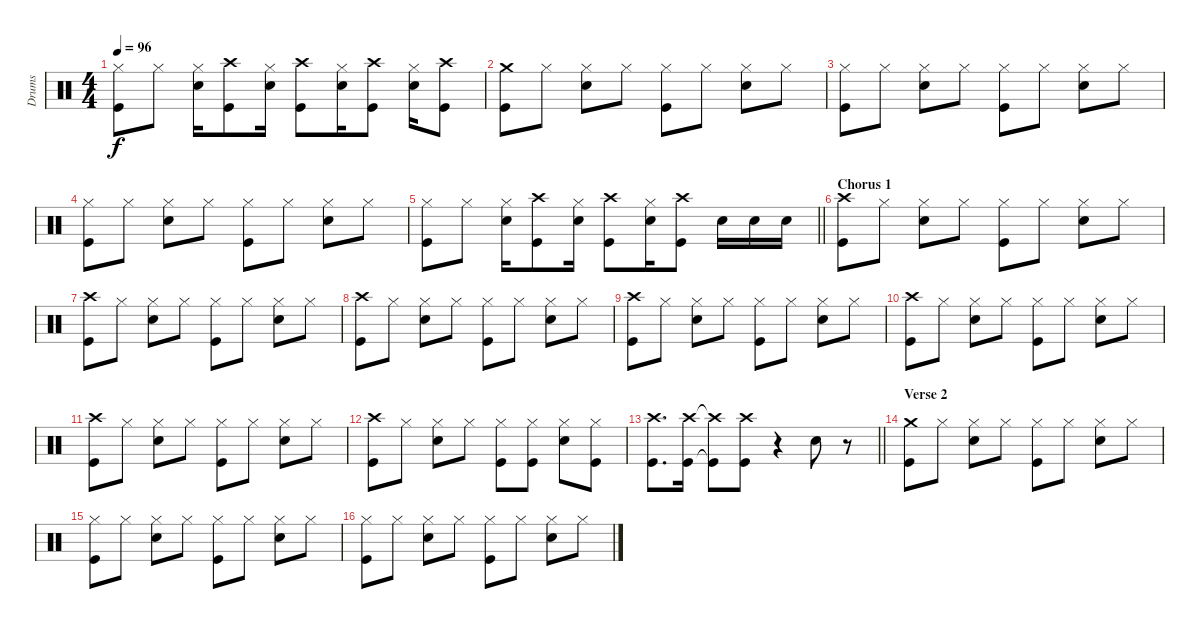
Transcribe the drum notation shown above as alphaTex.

\track ("Drums" "Drums") {instrument percussion}
\staff {score}
\articulation defaults
\ts (4 4)
\tempo 96
\clef neutral
\ks c
("Hi-Hat (closed)" "Kick (hit)").8{dy f} "Hi-Hat (closed)".8 ("Hi-Hat (closed)" "Electric Snare (hit)").16 ("Crash high (hit)" "Kick (hit)").8 ("Hi-Hat (closed)" "Electric Snare (hit)").16 ("Crash high (hit)" "Kick (hit)").8 ("Hi-Hat (closed)" "Electric Snare (hit)").16 ("Crash high (hit)" "Kick (hit)").8 ("Hi-Hat (closed)" "Electric Snare (hit)").16 ("Crash high (hit)" "Kick (hit)").8 |
("Crash medium (hit)" "Kick (hit)").8 "Hi-Hat (closed)".8 ("Hi-Hat (closed)" "Electric Snare (hit)").8 "Hi-Hat (closed)".8 ("Hi-Hat (closed)" "Kick (hit)").8 "Hi-Hat (closed)".8 ("Hi-Hat (closed)" "Electric Snare (hit)").8 "Hi-Hat (closed)".8 |
("Hi-Hat (closed)" "Kick (hit)").8 "Hi-Hat (closed)".8 ("Hi-Hat (closed)" "Electric Snare (hit)").8 "Hi-Hat (closed)".8 ("Hi-Hat (closed)" "Kick (hit)").8 "Hi-Hat (closed)".8 ("Hi-Hat (closed)" "Electric Snare (hit)").8 "Hi-Hat (closed)".8 |
("Hi-Hat (closed)" "Kick (hit)").8 "Hi-Hat (closed)".8 ("Hi-Hat (closed)" "Electric Snare (hit)").8 "Hi-Hat (closed)".8 ("Hi-Hat (closed)" "Kick (hit)").8 "Hi-Hat (closed)".8 ("Hi-Hat (closed)" "Electric Snare (hit)").8 "Hi-Hat (closed)".8 |
\barLineRight lightlight
("Hi-Hat (closed)" "Kick (hit)").8 "Hi-Hat (closed)".8 ("Hi-Hat (closed)" "Electric Snare (hit)").16 ("Crash high (hit)" "Kick (hit)").8 ("Hi-Hat (closed)" "Electric Snare (hit)").16 ("Crash high (hit)" "Kick (hit)").8 ("Hi-Hat (closed)" "Electric Snare (hit)").16 ("Crash high (hit)" "Kick (hit)").8 "Electric Snare (hit)".16 "Electric Snare (hit)".16 "Electric Snare (hit)".16 |
\section ("" "Chorus 1")
("Crash high (hit)" "Kick (hit)").8 "Hi-Hat (closed)".8 ("Hi-Hat (closed)" "Electric Snare (hit)").8 "Hi-Hat (closed)".8 ("Hi-Hat (closed)" "Kick (hit)").8 "Hi-Hat (closed)".8 ("Hi-Hat (closed)" "Electric Snare (hit)").8 "Hi-Hat (closed)".8 |
("Crash high (hit)" "Kick (hit)").8 "Hi-Hat (closed)".8 ("Hi-Hat (closed)" "Electric Snare (hit)").8 "Hi-Hat (closed)".8 ("Hi-Hat (closed)" "Kick (hit)").8 "Hi-Hat (closed)".8 ("Hi-Hat (closed)" "Electric Snare (hit)").8 "Hi-Hat (closed)".8 |
("Crash high (hit)" "Kick (hit)").8 "Hi-Hat (closed)".8 ("Hi-Hat (closed)" "Electric Snare (hit)").8 "Hi-Hat (closed)".8 ("Hi-Hat (closed)" "Kick (hit)").8 "Hi-Hat (closed)".8 ("Hi-Hat (closed)" "Electric Snare (hit)").8 "Hi-Hat (closed)".8 |
("Crash high (hit)" "Kick (hit)").8 "Hi-Hat (closed)".8 ("Hi-Hat (closed)" "Electric Snare (hit)").8 "Hi-Hat (closed)".8 ("Hi-Hat (closed)" "Kick (hit)").8 "Hi-Hat (closed)".8 ("Hi-Hat (closed)" "Electric Snare (hit)").8 "Hi-Hat (closed)".8 |
("Crash high (hit)" "Kick (hit)").8 "Hi-Hat (closed)".8 ("Hi-Hat (closed)" "Electric Snare (hit)").8 "Hi-Hat (closed)".8 ("Hi-Hat (closed)" "Kick (hit)").8 "Hi-Hat (closed)".8 ("Hi-Hat (closed)" "Electric Snare (hit)").8 "Hi-Hat (closed)".8 |
("Crash high (hit)" "Kick (hit)").8 "Hi-Hat (closed)".8 ("Hi-Hat (closed)" "Electric Snare (hit)").8 "Hi-Hat (closed)".8 ("Hi-Hat (closed)" "Kick (hit)").8 "Hi-Hat (closed)".8 ("Hi-Hat (closed)" "Electric Snare (hit)").8 "Hi-Hat (closed)".8 |
("Crash high (hit)" "Kick (hit)").8 "Hi-Hat (closed)".8 ("Hi-Hat (closed)" "Electric Snare (hit)").8 "Hi-Hat (closed)".8 ("Hi-Hat (closed)" "Kick (hit)").8 ("Hi-Hat (closed)" "Kick (hit)").8 ("Hi-Hat (closed)" "Electric Snare (hit)").8 ("Hi-Hat (closed)" "Kick (hit)").8 |
\barLineRight lightlight
("Crash high (hit)" "Kick (hit)").8{d} ("Crash high (hit)" "Kick (hit)").16 ("Crash high (hit)"{t} "Kick (hit)"{t}).8 ("Crash high (hit)" "Kick (hit)").8 r.4 "Electric Snare (hit)".8 r.8 |
\section ("" "Verse 2")
("Crash medium (hit)" "Kick (hit)").8 "Hi-Hat (closed)".8 ("Hi-Hat (closed)" "Electric Snare (hit)").8 "Hi-Hat (closed)".8 ("Hi-Hat (closed)" "Kick (hit)").8 "Hi-Hat (closed)".8 ("Hi-Hat (closed)" "Electric Snare (hit)").8 "Hi-Hat (closed)".8 |
("Hi-Hat (closed)" "Kick (hit)").8 "Hi-Hat (closed)".8 ("Hi-Hat (closed)" "Electric Snare (hit)").8 "Hi-Hat (closed)".8 ("Hi-Hat (closed)" "Kick (hit)").8 "Hi-Hat (closed)".8 ("Hi-Hat (closed)" "Electric Snare (hit)").8 "Hi-Hat (closed)".8 |
("Hi-Hat (closed)" "Kick (hit)").8 "Hi-Hat (closed)".8 ("Hi-Hat (closed)" "Electric Snare (hit)").8 "Hi-Hat (closed)".8 ("Hi-Hat (closed)" "Kick (hit)").8 "Hi-Hat (closed)".8 ("Hi-Hat (closed)" "Electric Snare (hit)").8 "Hi-Hat (closed)".8
